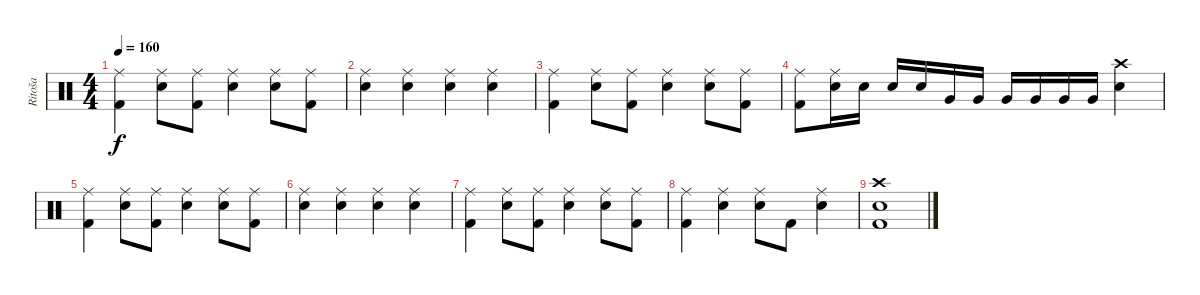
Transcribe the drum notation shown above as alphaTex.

\track ("Ritoša" "Ritoša") {instrument percussion}
\staff {score}
\articulation defaults
\ts (4 4)
\tempo 160
\clef neutral
\ks c
("Ride (middle)" "Kick (hit) 2").4{dy f} ("Ride (middle)" "Electric Snare (hit)").8 ("Ride (middle)" "Kick (hit) 2").8 ("Ride (middle)" "Electric Snare (hit)").4 ("Ride (middle)" "Electric Snare (hit)").8 ("Ride (middle)" "Kick (hit) 2").8 |
("Ride (middle)" "Electric Snare (hit)").4 ("Ride (middle)" "Electric Snare (hit)").4 ("Ride (middle)" "Electric Snare (hit)").4 ("Ride (middle)" "Electric Snare (hit)").4 |
("Ride (middle)" "Kick (hit) 2").4 ("Ride (middle)" "Electric Snare (hit)").8 ("Ride (middle)" "Kick (hit) 2").8 ("Ride (middle)" "Electric Snare (hit)").4 ("Ride (middle)" "Electric Snare (hit)").8 ("Ride (middle)" "Kick (hit) 2").8 |
("Ride (middle)" "Kick (hit) 2").8 ("Ride (middle)" "Electric Snare (hit)").16 "Electric Snare (hit)".16 "Electric Snare (hit)".16 "Electric Snare (hit)".16 "Very Low Tom (hit)".16 "Very Low Tom (hit)".16 "Very Low Tom (hit)".16 "Very Low Tom (hit)".16 "Very Low Tom (hit)".16 "Very Low Tom (hit)".16 ("Crash high (hit)" "Electric Snare (hit)").4 |
("Ride (middle)" "Kick (hit) 2").4 ("Ride (middle)" "Electric Snare (hit)").8 ("Ride (middle)" "Kick (hit) 2").8 ("Ride (middle)" "Electric Snare (hit)").4 ("Ride (middle)" "Electric Snare (hit)").8 ("Ride (middle)" "Kick (hit) 2").8 |
("Ride (middle)" "Electric Snare (hit)").4 ("Ride (middle)" "Electric Snare (hit)").4 ("Ride (middle)" "Electric Snare (hit)").4 ("Ride (middle)" "Electric Snare (hit)").4 |
("Ride (middle)" "Kick (hit) 2").4 ("Ride (middle)" "Electric Snare (hit)").8 ("Ride (middle)" "Kick (hit) 2").8 ("Ride (middle)" "Electric Snare (hit)").4 ("Ride (middle)" "Electric Snare (hit)").8 ("Ride (middle)" "Kick (hit) 2").8 |
("Ride (middle)" "Kick (hit) 2").4 ("Ride (middle)" "Electric Snare (hit)").4 ("Ride (middle)" "Electric Snare (hit)").8 "Kick (hit) 2".8 ("Ride (middle)" "Electric Snare (hit)").4 |
("Crash high (hit)" "Electric Snare (hit)" "Kick (hit) 2").1
